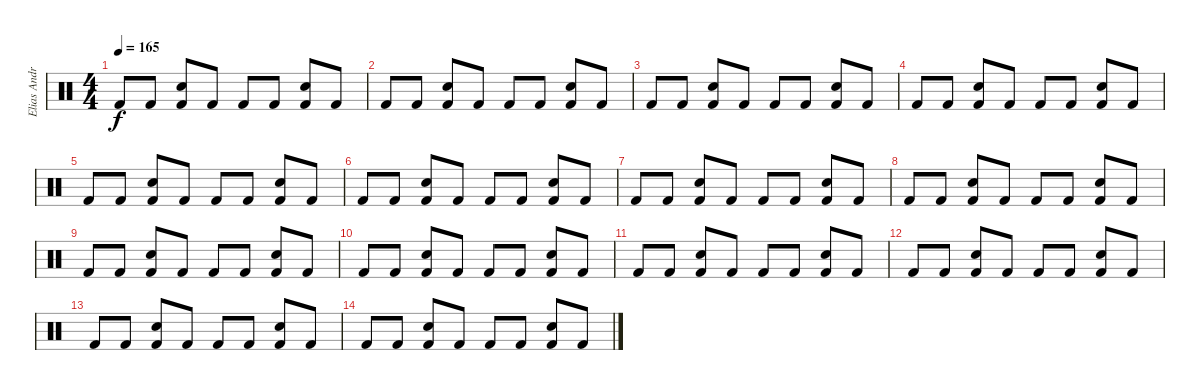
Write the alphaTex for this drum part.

\track ("Elias Andra-Drums" "Elias Andr") {instrument percussion}
\staff {score}
\articulation defaults
\ts (4 4)
\tempo 165
\clef neutral
\ks c "Kick (hit) 2".8{dy f} "Kick (hit) 2".8
("Kick (hit) 2" "Electric Snare (hit)").8 "Kick (hit) 2".8 "Kick (hit) 2".8 "Kick (hit) 2".8 ("Kick (hit) 2" "Electric Snare (hit)").8 "Kick (hit) 2".8 |
"Kick (hit) 2".8 "Kick (hit) 2".8 ("Kick (hit) 2" "Electric Snare (hit)").8 "Kick (hit) 2".8 "Kick (hit) 2".8 "Kick (hit) 2".8 ("Kick (hit) 2" "Electric Snare (hit)").8 "Kick (hit) 2".8 |
"Kick (hit) 2".8 "Kick (hit) 2".8 ("Kick (hit) 2" "Electric Snare (hit)").8 "Kick (hit) 2".8 "Kick (hit) 2".8 "Kick (hit) 2".8 ("Kick (hit) 2" "Electric Snare (hit)").8 "Kick (hit) 2".8 |
"Kick (hit) 2".8 "Kick (hit) 2".8 ("Kick (hit) 2" "Electric Snare (hit)").8 "Kick (hit) 2".8 "Kick (hit) 2".8 "Kick (hit) 2".8 ("Kick (hit) 2" "Electric Snare (hit)").8 "Kick (hit) 2".8 |
"Kick (hit) 2".8 "Kick (hit) 2".8 ("Kick (hit) 2" "Electric Snare (hit)").8 "Kick (hit) 2".8 "Kick (hit) 2".8 "Kick (hit) 2".8 ("Kick (hit) 2" "Electric Snare (hit)").8 "Kick (hit) 2".8 |
"Kick (hit) 2".8 "Kick (hit) 2".8 ("Kick (hit) 2" "Electric Snare (hit)").8 "Kick (hit) 2".8 "Kick (hit) 2".8 "Kick (hit) 2".8 ("Kick (hit) 2" "Electric Snare (hit)").8 "Kick (hit) 2".8 |
"Kick (hit) 2".8 "Kick (hit) 2".8 ("Kick (hit) 2" "Electric Snare (hit)").8 "Kick (hit) 2".8 "Kick (hit) 2".8 "Kick (hit) 2".8 ("Kick (hit) 2" "Electric Snare (hit)").8 "Kick (hit) 2".8 |
"Kick (hit) 2".8 "Kick (hit) 2".8 ("Kick (hit) 2" "Electric Snare (hit)").8 "Kick (hit) 2".8 "Kick (hit) 2".8 "Kick (hit) 2".8 ("Kick (hit) 2" "Electric Snare (hit)").8 "Kick (hit) 2".8 |
"Kick (hit) 2".8 "Kick (hit) 2".8 ("Kick (hit) 2" "Electric Snare (hit)").8 "Kick (hit) 2".8 "Kick (hit) 2".8 "Kick (hit) 2".8 ("Kick (hit) 2" "Electric Snare (hit)").8 "Kick (hit) 2".8 |
"Kick (hit) 2".8 "Kick (hit) 2".8 ("Kick (hit) 2" "Electric Snare (hit)").8 "Kick (hit) 2".8 "Kick (hit) 2".8 "Kick (hit) 2".8 ("Kick (hit) 2" "Electric Snare (hit)").8 "Kick (hit) 2".8 |
"Kick (hit) 2".8 "Kick (hit) 2".8 ("Kick (hit) 2" "Electric Snare (hit)").8 "Kick (hit) 2".8 "Kick (hit) 2".8 "Kick (hit) 2".8 ("Kick (hit) 2" "Electric Snare (hit)").8 "Kick (hit) 2".8 |
"Kick (hit) 2".8 "Kick (hit) 2".8 ("Kick (hit) 2" "Electric Snare (hit)").8 "Kick (hit) 2".8 "Kick (hit) 2".8 "Kick (hit) 2".8 ("Kick (hit) 2" "Electric Snare (hit)").8 "Kick (hit) 2".8 |
"Kick (hit) 2".8 "Kick (hit) 2".8 ("Kick (hit) 2" "Electric Snare (hit)").8 "Kick (hit) 2".8 "Kick (hit) 2".8 "Kick (hit) 2".8 ("Kick (hit) 2" "Electric Snare (hit)").8 "Kick (hit) 2".8 |
"Kick (hit) 2".8 "Kick (hit) 2".8 ("Kick (hit) 2" "Electric Snare (hit)").8 "Kick (hit) 2".8 "Kick (hit) 2".8 "Kick (hit) 2".8 ("Kick (hit) 2" "Electric Snare (hit)").8 "Kick (hit) 2".8
